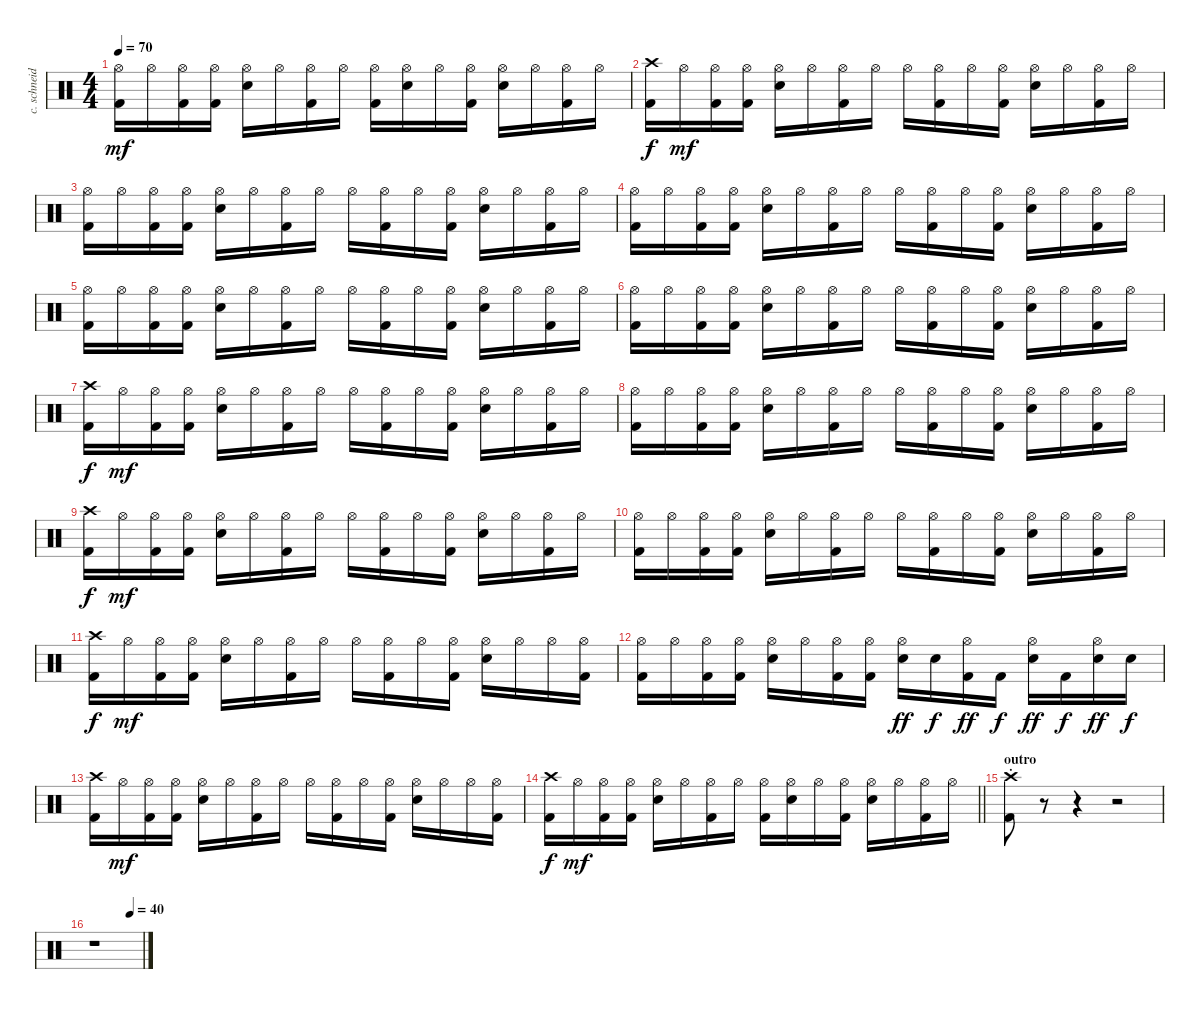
\track ("c. schneider - drums" "c. schneid") {instrument percussion}
\staff {score}
\articulation defaults
\ts (4 4)
\tempo 70
\clef neutral
\ks c
("Hi-Hat (open)" "Kick (hit) 2").16{dy mf} "Hi-Hat (open)".16 ("Hi-Hat (open)" "Kick (hit) 2").16 ("Hi-Hat (open)" "Kick (hit) 2").16 ("Hi-Hat (open)" "Electric Snare (hit)").16 "Hi-Hat (open)".16 ("Hi-Hat (open)" "Kick (hit) 2").16 "Hi-Hat (open)".16 ("Hi-Hat (open)" "Kick (hit) 2").16 ("Hi-Hat (open)" "Electric Snare (hit)").16 "Hi-Hat (open)".16 ("Hi-Hat (open)" "Kick (hit) 2").16 ("Hi-Hat (open)" "Electric Snare (hit)").16 "Hi-Hat (open)".16 ("Hi-Hat (open)" "Kick (hit) 2").16 "Hi-Hat (open)".16 |
("Crash high (hit)" "Kick (hit) 2").16{dy f} "Hi-Hat (open)".16{dy mf} ("Hi-Hat (open)" "Kick (hit) 2").16 ("Hi-Hat (open)" "Kick (hit) 2").16 ("Hi-Hat (open)" "Electric Snare (hit)").16 "Hi-Hat (open)".16 ("Hi-Hat (open)" "Kick (hit) 2").16 "Hi-Hat (open)".16 "Hi-Hat (open)".16 ("Hi-Hat (open)" "Kick (hit) 2").16 "Hi-Hat (open)".16 ("Hi-Hat (open)" "Kick (hit) 2").16 ("Hi-Hat (open)" "Electric Snare (hit)").16 "Hi-Hat (open)".16 ("Hi-Hat (open)" "Kick (hit) 2").16 "Hi-Hat (open)".16 |
("Hi-Hat (open)" "Kick (hit) 2").16 "Hi-Hat (open)".16 ("Hi-Hat (open)" "Kick (hit) 2").16 ("Hi-Hat (open)" "Kick (hit) 2").16 ("Hi-Hat (open)" "Electric Snare (hit)").16 "Hi-Hat (open)".16 ("Hi-Hat (open)" "Kick (hit) 2").16 "Hi-Hat (open)".16 "Hi-Hat (open)".16 ("Hi-Hat (open)" "Kick (hit) 2").16 "Hi-Hat (open)".16 ("Hi-Hat (open)" "Kick (hit) 2").16 ("Hi-Hat (open)" "Electric Snare (hit)").16 "Hi-Hat (open)".16 ("Hi-Hat (open)" "Kick (hit) 2").16 "Hi-Hat (open)".16 |
("Hi-Hat (open)" "Kick (hit) 2").16 "Hi-Hat (open)".16 ("Hi-Hat (open)" "Kick (hit) 2").16 ("Hi-Hat (open)" "Kick (hit) 2").16 ("Hi-Hat (open)" "Electric Snare (hit)").16 "Hi-Hat (open)".16 ("Hi-Hat (open)" "Kick (hit) 2").16 "Hi-Hat (open)".16 "Hi-Hat (open)".16 ("Hi-Hat (open)" "Kick (hit) 2").16 "Hi-Hat (open)".16 ("Hi-Hat (open)" "Kick (hit) 2").16 ("Hi-Hat (open)" "Electric Snare (hit)").16 "Hi-Hat (open)".16 ("Hi-Hat (open)" "Kick (hit) 2").16 "Hi-Hat (open)".16 |
("Hi-Hat (open)" "Kick (hit) 2").16 "Hi-Hat (open)".16 ("Hi-Hat (open)" "Kick (hit) 2").16 ("Hi-Hat (open)" "Kick (hit) 2").16 ("Hi-Hat (open)" "Electric Snare (hit)").16 "Hi-Hat (open)".16 ("Hi-Hat (open)" "Kick (hit) 2").16 "Hi-Hat (open)".16 "Hi-Hat (open)".16 ("Hi-Hat (open)" "Kick (hit) 2").16 "Hi-Hat (open)".16 ("Hi-Hat (open)" "Kick (hit) 2").16 ("Hi-Hat (open)" "Electric Snare (hit)").16 "Hi-Hat (open)".16 ("Hi-Hat (open)" "Kick (hit) 2").16 "Hi-Hat (open)".16 |
("Hi-Hat (open)" "Kick (hit) 2").16 "Hi-Hat (open)".16 ("Hi-Hat (open)" "Kick (hit) 2").16 ("Hi-Hat (open)" "Kick (hit) 2").16 ("Hi-Hat (open)" "Electric Snare (hit)").16 "Hi-Hat (open)".16 ("Hi-Hat (open)" "Kick (hit) 2").16 "Hi-Hat (open)".16 "Hi-Hat (open)".16 ("Hi-Hat (open)" "Kick (hit) 2").16 "Hi-Hat (open)".16 ("Hi-Hat (open)" "Kick (hit) 2").16 ("Hi-Hat (open)" "Electric Snare (hit)").16 "Hi-Hat (open)".16 ("Hi-Hat (open)" "Kick (hit) 2").16 "Hi-Hat (open)".16 |
("Crash high (hit)" "Kick (hit) 2").16{dy f} "Hi-Hat (open)".16{dy mf} ("Hi-Hat (open)" "Kick (hit) 2").16 ("Hi-Hat (open)" "Kick (hit) 2").16 ("Hi-Hat (open)" "Electric Snare (hit)").16 "Hi-Hat (open)".16 ("Hi-Hat (open)" "Kick (hit) 2").16 "Hi-Hat (open)".16 "Hi-Hat (open)".16 ("Hi-Hat (open)" "Kick (hit) 2").16 "Hi-Hat (open)".16 ("Hi-Hat (open)" "Kick (hit) 2").16 ("Hi-Hat (open)" "Electric Snare (hit)").16 "Hi-Hat (open)".16 ("Hi-Hat (open)" "Kick (hit) 2").16 "Hi-Hat (open)".16 |
("Hi-Hat (open)" "Kick (hit) 2").16 "Hi-Hat (open)".16 ("Hi-Hat (open)" "Kick (hit) 2").16 ("Hi-Hat (open)" "Kick (hit) 2").16 ("Hi-Hat (open)" "Electric Snare (hit)").16 "Hi-Hat (open)".16 ("Hi-Hat (open)" "Kick (hit) 2").16 "Hi-Hat (open)".16 "Hi-Hat (open)".16 ("Hi-Hat (open)" "Kick (hit) 2").16 "Hi-Hat (open)".16 ("Hi-Hat (open)" "Kick (hit) 2").16 ("Hi-Hat (open)" "Electric Snare (hit)").16 "Hi-Hat (open)".16 ("Hi-Hat (open)" "Kick (hit) 2").16 "Hi-Hat (open)".16 |
("Crash high (hit)" "Kick (hit) 2").16{dy f} "Hi-Hat (open)".16{dy mf} ("Hi-Hat (open)" "Kick (hit) 2").16 ("Hi-Hat (open)" "Kick (hit) 2").16 ("Hi-Hat (open)" "Electric Snare (hit)").16 "Hi-Hat (open)".16 ("Hi-Hat (open)" "Kick (hit) 2").16 "Hi-Hat (open)".16 "Hi-Hat (open)".16 ("Hi-Hat (open)" "Kick (hit) 2").16 "Hi-Hat (open)".16 ("Hi-Hat (open)" "Kick (hit) 2").16 ("Hi-Hat (open)" "Electric Snare (hit)").16 "Hi-Hat (open)".16 ("Hi-Hat (open)" "Kick (hit) 2").16 "Hi-Hat (open)".16 |
("Hi-Hat (open)" "Kick (hit) 2").16 "Hi-Hat (open)".16 ("Hi-Hat (open)" "Kick (hit) 2").16 ("Hi-Hat (open)" "Kick (hit) 2").16 ("Hi-Hat (open)" "Electric Snare (hit)").16 "Hi-Hat (open)".16 ("Hi-Hat (open)" "Kick (hit) 2").16 "Hi-Hat (open)".16 "Hi-Hat (open)".16 ("Hi-Hat (open)" "Kick (hit) 2").16 "Hi-Hat (open)".16 ("Hi-Hat (open)" "Kick (hit) 2").16 ("Hi-Hat (open)" "Electric Snare (hit)").16 "Hi-Hat (open)".16 ("Hi-Hat (open)" "Kick (hit) 2").16 "Hi-Hat (open)".16 |
("Crash high (hit)" "Kick (hit) 2").16{dy f} "Hi-Hat (open)".16{dy mf} ("Hi-Hat (open)" "Kick (hit) 2").16 ("Hi-Hat (open)" "Kick (hit) 2").16 ("Hi-Hat (open)" "Electric Snare (hit)").16 "Hi-Hat (open)".16 ("Hi-Hat (open)" "Kick (hit) 2").16 "Hi-Hat (open)".16 "Hi-Hat (open)".16 ("Hi-Hat (open)" "Kick (hit) 2").16 "Hi-Hat (open)".16 ("Hi-Hat (open)" "Kick (hit) 2").16 ("Hi-Hat (open)" "Electric Snare (hit)").16 "Hi-Hat (open)".16 "Hi-Hat (open)".16 ("Hi-Hat (open)" "Kick (hit) 2").16 |
("Hi-Hat (open)" "Kick (hit) 2").16 "Hi-Hat (open)".16 ("Hi-Hat (open)" "Kick (hit) 2").16 ("Hi-Hat (open)" "Kick (hit) 2").16 ("Hi-Hat (open)" "Electric Snare (hit)").16 "Hi-Hat (open)".16 ("Hi-Hat (open)" "Kick (hit) 2").16 ("Hi-Hat (open)" "Kick (hit) 2").16 ("Hi-Hat (open)" "Electric Snare (hit)").16{dy ff} "Electric Snare (hit)".16{dy f} ("Hi-Hat (open)" "Kick (hit) 2").16{dy ff} "Kick (hit) 2".16{dy f} ("Hi-Hat (open)" "Electric Snare (hit)").16{dy ff} "Kick (hit) 2".16{dy f} ("Hi-Hat (open)" "Electric Snare (hit)").16{dy ff} "Electric Snare (hit)".16{dy f} |
("Crash high (hit)" "Kick (hit) 2").16 "Hi-Hat (open)".16{dy mf} ("Hi-Hat (open)" "Kick (hit) 2").16 ("Hi-Hat (open)" "Kick (hit) 2").16 ("Hi-Hat (open)" "Electric Snare (hit)").16 "Hi-Hat (open)".16 ("Hi-Hat (open)" "Kick (hit) 2").16 "Hi-Hat (open)".16 "Hi-Hat (open)".16 ("Hi-Hat (open)" "Kick (hit) 2").16 "Hi-Hat (open)".16 ("Hi-Hat (open)" "Kick (hit) 2").16 ("Hi-Hat (open)" "Electric Snare (hit)").16 "Hi-Hat (open)".16 "Hi-Hat (open)".16 ("Hi-Hat (open)" "Kick (hit) 2").16 |
\barLineRight lightlight
("Crash high (hit)" "Kick (hit) 2").16{dy f} "Hi-Hat (open)".16{dy mf} ("Hi-Hat (open)" "Kick (hit) 2").16 ("Hi-Hat (open)" "Kick (hit) 2").16 ("Hi-Hat (open)" "Electric Snare (hit)").16 "Hi-Hat (open)".16 ("Hi-Hat (open)" "Kick (hit) 2").16 "Hi-Hat (open)".16 ("Hi-Hat (open)" "Kick (hit) 2").16 ("Hi-Hat (open)" "Electric Snare (hit)").16 "Hi-Hat (open)".16 ("Hi-Hat (open)" "Kick (hit) 2").16 ("Hi-Hat (open)" "Electric Snare (hit)").16 "Hi-Hat (open)".16 ("Hi-Hat (open)" "Kick (hit) 2").16 "Hi-Hat (open)".16 |
\section ("" "outro")
("Crash high (hit)"{st} "Kick (hit) 2"{st}).8 r.8 r.4 r.2 |
\tempo (40 0.75)
r.1
